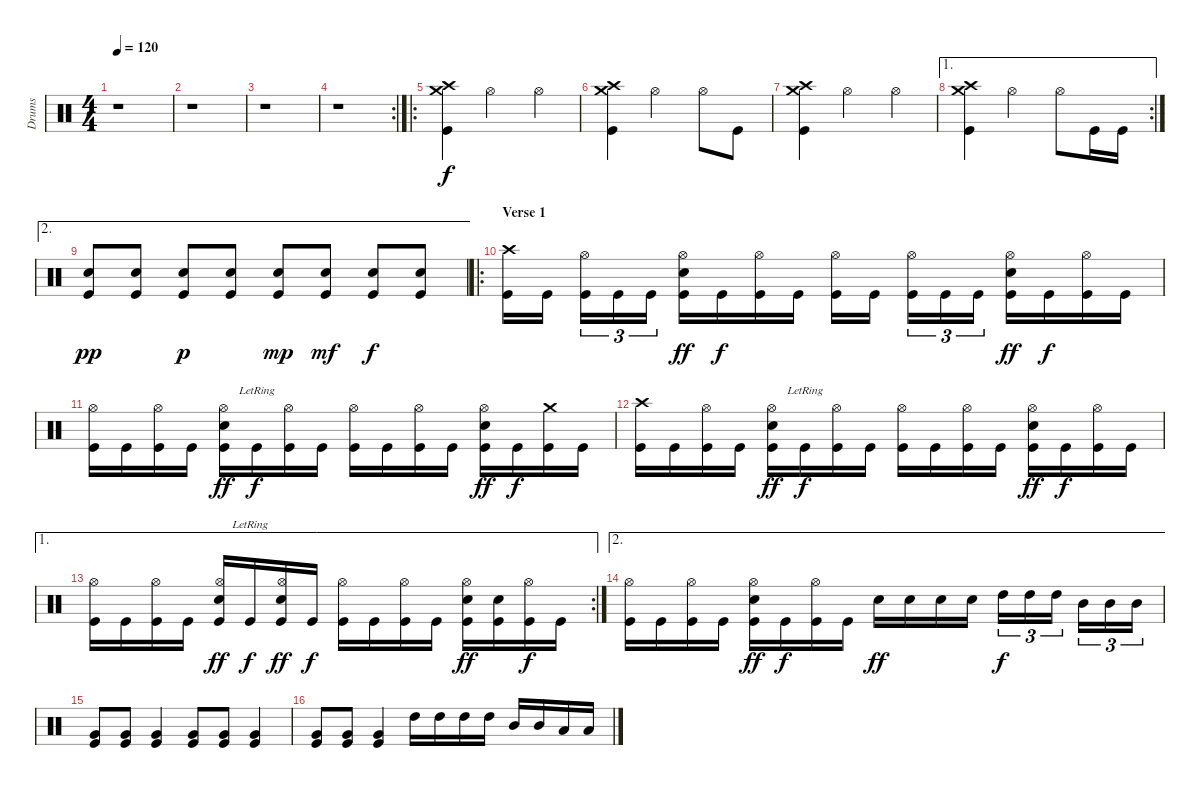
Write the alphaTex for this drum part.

\track ("Drums" "Drums") {instrument percussion}
\staff {score}
\articulation defaults
\ts (4 4)
\tempo 120
\clef neutral
\ks c
r.1{dy f} |
r.1 |
r.1 |
\rc 2
r.1 |
\ro
("Crash high (hit)" "Crash medium (hit)" "Kick (hit)").4 "Hi-Hat (open)".2 "Hi-Hat (open)".4 |
("Crash high (hit)" "Crash medium (hit)" "Kick (hit)").4 "Hi-Hat (open)".2 "Hi-Hat (open)".8 "Kick (hit)".8 |
("Crash high (hit)" "Crash medium (hit)" "Kick (hit)").4 "Hi-Hat (open)".2 "Hi-Hat (open)".4 |
\ae 1
\rc 2
("Crash high (hit)" "Crash medium (hit)" "Kick (hit)").4 "Hi-Hat (open)".2 "Hi-Hat (open)".8 "Kick (hit)".16 "Kick (hit)".16 |
\ae 2
("Electric Snare (hit)" "Kick (hit)").8{dy pp} ("Electric Snare (hit)" "Kick (hit)").8 ("Electric Snare (hit)" "Kick (hit)").8{dy p} ("Electric Snare (hit)" "Kick (hit)").8 ("Electric Snare (hit)" "Kick (hit)").8{dy mp} ("Electric Snare (hit)" "Kick (hit)").8{dy mf} ("Electric Snare (hit)" "Kick (hit)").8{dy f} ("Electric Snare (hit)" "Kick (hit)").8 |
\ro
\section ("" "Verse 1")
("Crash high (hit)" "Kick (hit)").16 "Kick (hit)".16 ("Hi-Hat (open)" "Kick (hit)").16{tu (3 2)} "Kick (hit)".16{tu (3 2)} "Kick (hit)".16{tu (3 2)} ("Hi-Hat (open)" "Electric Snare (hit)" "Kick (hit)").16{dy ff} "Kick (hit)".16{dy f} ("Hi-Hat (open)" "Kick (hit)").16 "Kick (hit)".16 ("Hi-Hat (open)" "Kick (hit)").16 "Kick (hit)".16 ("Hi-Hat (open)" "Kick (hit)").16{tu (3 2)} "Kick (hit)".16{tu (3 2)} "Kick (hit)".16{tu (3 2)} ("Hi-Hat (open)" "Electric Snare (hit)" "Kick (hit)").16{dy ff} "Kick (hit)".16{dy f} ("Hi-Hat (open)" "Kick (hit)").16 "Kick (hit)".16 |
("Hi-Hat (open)" "Kick (hit)").16 "Kick (hit)".16 ("Hi-Hat (open)" "Kick (hit)").16 "Kick (hit)".16 ("Hi-Hat (open)" "Electric Snare (hit)" "Kick (hit)").16{dy ff} "Kick (hit)"{lr}.16{dy f} ("Hi-Hat (open)" "Kick (hit)").16 "Kick (hit)".16 ("Hi-Hat (open)" "Kick (hit)").16 "Kick (hit)".16 ("Hi-Hat (open)" "Kick (hit)").16 "Kick (hit)".16 ("Hi-Hat (open)" "Electric Snare (hit)" "Kick (hit)").16{dy ff} "Kick (hit)".16{dy f} ("Crash medium (hit)" "Kick (hit)").16 "Kick (hit)".16 |
("Crash high (hit)" "Kick (hit)").16 "Kick (hit)".16 ("Hi-Hat (open)" "Kick (hit)").16 "Kick (hit)".16 ("Hi-Hat (open)" "Electric Snare (hit)" "Kick (hit)").16{dy ff} "Kick (hit)"{lr}.16{dy f} ("Hi-Hat (open)" "Kick (hit)").16 "Kick (hit)".16 ("Hi-Hat (open)" "Kick (hit)").16 "Kick (hit)".16 ("Hi-Hat (open)" "Kick (hit)").16 "Kick (hit)".16 ("Hi-Hat (open)" "Electric Snare (hit)" "Kick (hit)").16{dy ff} "Kick (hit)".16{dy f} ("Hi-Hat (open)" "Kick (hit)").16 "Kick (hit)".16 |
\ae 1
\rc 2
("Hi-Hat (open)" "Kick (hit)").16 "Kick (hit)".16 ("Hi-Hat (open)" "Kick (hit)").16 "Kick (hit)".16 ("Hi-Hat (open)" "Electric Snare (hit)" "Kick (hit)").16{dy ff} "Kick (hit)"{lr}.16{dy f} ("Hi-Hat (open)" "Electric Snare (hit)" "Kick (hit)").16{dy ff} "Kick (hit)".16{dy f} ("Hi-Hat (open)" "Kick (hit)").16 "Kick (hit)".16 ("Hi-Hat (open)" "Kick (hit)").16 "Kick (hit)".16 ("Hi-Hat (open)" "Electric Snare (hit)" "Kick (hit)").16{dy ff} ("Electric Snare (hit)" "Kick (hit)").16 ("Hi-Hat (open)" "Kick (hit)").16{dy f} "Kick (hit)".16 |
\ae 2
("Hi-Hat (open)" "Kick (hit)").16 "Kick (hit)".16 ("Hi-Hat (open)" "Kick (hit)").16 "Kick (hit)".16 ("Hi-Hat (open)" "Electric Snare (hit)" "Kick (hit)").16{dy ff} "Kick (hit)".16{dy f} ("Hi-Hat (open)" "Kick (hit)").16 "Kick (hit)".16 "Electric Snare (hit)".16{dy ff} "Electric Snare (hit)".16 "Electric Snare (hit)".16 "Electric Snare (hit)".16 "High Tom (hit)".16{tu (3 2) dy f} "High Tom (hit)".16{tu (3 2)} "High Tom (hit)".16{tu (3 2)} "Mid Tom (hit)".16{tu (3 2)} "Mid Tom (hit)".16{tu (3 2)} "Mid Tom (hit)".16{tu (3 2)} |
("Very Low Tom (hit)" "Kick (hit)").8 ("Very Low Tom (hit)" "Kick (hit)").8 ("Very Low Tom (hit)" "Kick (hit)").4 ("Very Low Tom (hit)" "Kick (hit)").8 ("Very Low Tom (hit)" "Kick (hit)").8 ("Very Low Tom (hit)" "Kick (hit)").4 |
("Very Low Tom (hit)" "Kick (hit)").8 ("Very Low Tom (hit)" "Kick (hit)").8 ("Very Low Tom (hit)" "Kick (hit)").4 "High Tom (hit)".16 "High Tom (hit)".16 "High Tom (hit)".16 "High Tom (hit)".16 "Mid Tom (hit)".16 "Mid Tom (hit)".16 "Low Tom (hit)".16 "Low Tom (hit)".16
